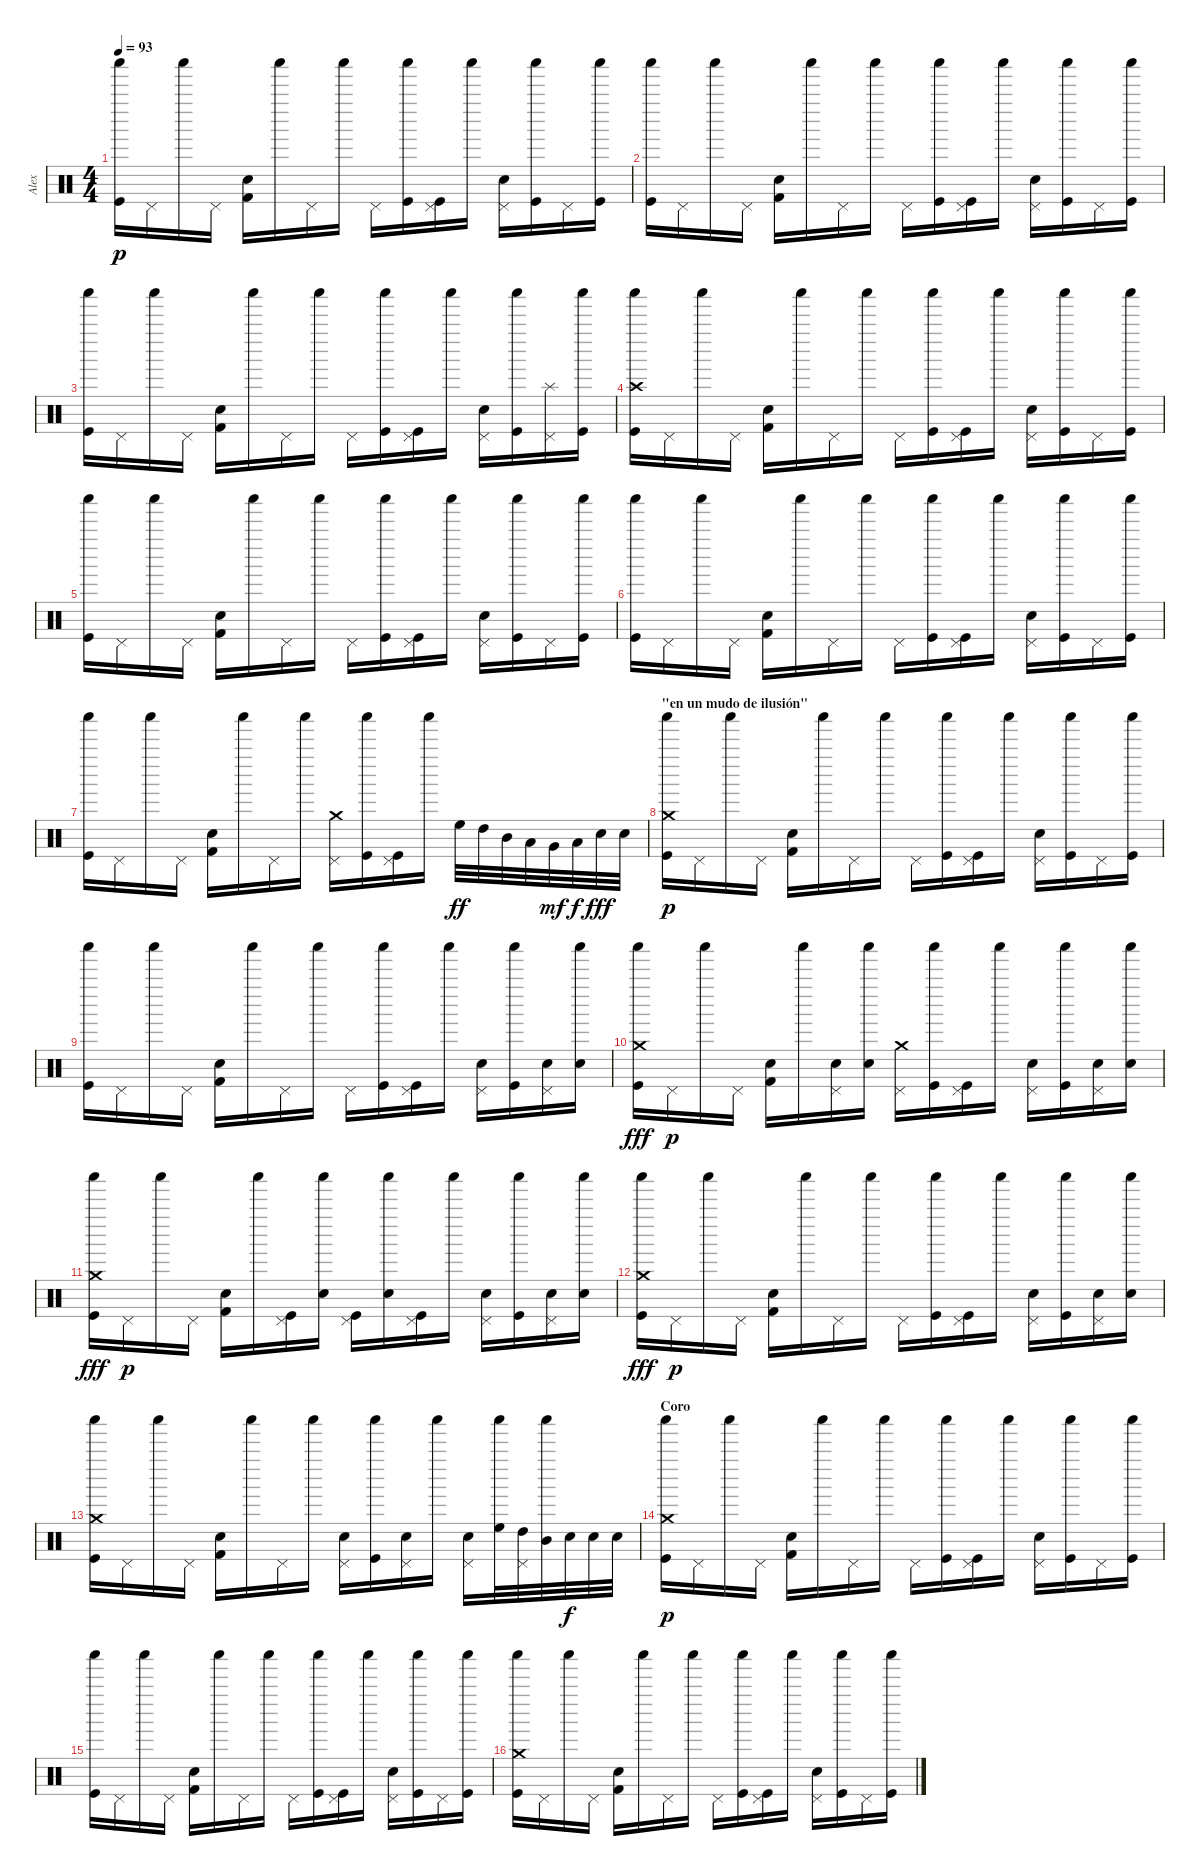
\track ("Alex" "Alex") {instrument percussion}
\staff {score}
\articulation defaults
\ts (4 4)
\tempo 93
\clef neutral
\ks c
("Kick (hit)" "Shaker (hit)").16{dy p} "Pedal Hi-Hat (hit)".16 "Shaker (hit)".16 "Pedal Hi-Hat (hit)".16 ("Electric Snare (hit)" "Kick (hit) 2").16 "Shaker (hit)".16 "Pedal Hi-Hat (hit)".16 "Shaker (hit)".16 "Pedal Hi-Hat (hit)".16 ("Kick (hit)" "Shaker (hit)").16 ("Kick (hit)" "Pedal Hi-Hat (hit)").16 "Shaker (hit)".16 ("Electric Snare (hit)" "Pedal Hi-Hat (hit)").16 ("Kick (hit)" "Shaker (hit)").16 "Pedal Hi-Hat (hit)".16 ("Kick (hit)" "Shaker (hit)").16 |
("Kick (hit)" "Shaker (hit)").16 "Pedal Hi-Hat (hit)".16 "Shaker (hit)".16 "Pedal Hi-Hat (hit)".16 ("Electric Snare (hit)" "Kick (hit) 2").16 "Shaker (hit)".16 "Pedal Hi-Hat (hit)".16 "Shaker (hit)".16 "Pedal Hi-Hat (hit)".16 ("Kick (hit)" "Shaker (hit)").16 ("Kick (hit)" "Pedal Hi-Hat (hit)").16 "Shaker (hit)".16 ("Electric Snare (hit)" "Pedal Hi-Hat (hit)").16 ("Kick (hit)" "Shaker (hit)").16 "Pedal Hi-Hat (hit)".16 ("Kick (hit)" "Shaker (hit)").16 |
("Kick (hit)" "Shaker (hit)").16 "Pedal Hi-Hat (hit)".16 "Shaker (hit)".16 "Pedal Hi-Hat (hit)".16 ("Electric Snare (hit)" "Kick (hit) 2").16 "Shaker (hit)".16 "Pedal Hi-Hat (hit)".16 "Shaker (hit)".16 "Pedal Hi-Hat (hit)".16 ("Kick (hit)" "Shaker (hit)").16 ("Kick (hit)" "Pedal Hi-Hat (hit)").16 "Shaker (hit)".16 ("Electric Snare (hit)" "Pedal Hi-Hat (hit)").16 ("Kick (hit)" "Shaker (hit)").16 ("Pedal Hi-Hat (hit)" "Splash (hit)").16 ("Kick (hit)" "Shaker (hit)").16 |
("Kick (hit)" "Shaker (hit)" "Crash high (hit)").16 "Pedal Hi-Hat (hit)".16 "Shaker (hit)".16 "Pedal Hi-Hat (hit)".16 ("Electric Snare (hit)" "Kick (hit) 2").16 "Shaker (hit)".16 "Pedal Hi-Hat (hit)".16 "Shaker (hit)".16 "Pedal Hi-Hat (hit)".16 ("Kick (hit)" "Shaker (hit)").16 ("Kick (hit)" "Pedal Hi-Hat (hit)").16 "Shaker (hit)".16 ("Electric Snare (hit)" "Pedal Hi-Hat (hit)").16 ("Kick (hit)" "Shaker (hit)").16 "Pedal Hi-Hat (hit)".16 ("Kick (hit)" "Shaker (hit)").16 |
("Kick (hit)" "Shaker (hit)").16 "Pedal Hi-Hat (hit)".16 "Shaker (hit)".16 "Pedal Hi-Hat (hit)".16 ("Electric Snare (hit)" "Kick (hit) 2").16 "Shaker (hit)".16 "Pedal Hi-Hat (hit)".16 "Shaker (hit)".16 "Pedal Hi-Hat (hit)".16 ("Kick (hit)" "Shaker (hit)").16 ("Kick (hit)" "Pedal Hi-Hat (hit)").16 "Shaker (hit)".16 ("Electric Snare (hit)" "Pedal Hi-Hat (hit)").16 ("Kick (hit)" "Shaker (hit)").16 "Pedal Hi-Hat (hit)".16 ("Kick (hit)" "Shaker (hit)").16 |
("Kick (hit)" "Shaker (hit)").16 "Pedal Hi-Hat (hit)".16 "Shaker (hit)".16 "Pedal Hi-Hat (hit)".16 ("Electric Snare (hit)" "Kick (hit) 2").16 "Shaker (hit)".16 "Pedal Hi-Hat (hit)".16 "Shaker (hit)".16 "Pedal Hi-Hat (hit)".16 ("Kick (hit)" "Shaker (hit)").16 ("Kick (hit)" "Pedal Hi-Hat (hit)").16 "Shaker (hit)".16 ("Electric Snare (hit)" "Pedal Hi-Hat (hit)").16 ("Kick (hit)" "Shaker (hit)").16 "Pedal Hi-Hat (hit)".16 ("Kick (hit)" "Shaker (hit)").16 |
("Kick (hit)" "Shaker (hit)").16 "Pedal Hi-Hat (hit)".16 "Shaker (hit)".16 "Pedal Hi-Hat (hit)".16 ("Electric Snare (hit)" "Kick (hit) 2").16 "Shaker (hit)".16 "Pedal Hi-Hat (hit)".16 "Shaker (hit)".16 ("Crash medium (hit)" "Pedal Hi-Hat (hit)").16 ("Kick (hit)" "Shaker (hit)").16 ("Kick (hit)" "Pedal Hi-Hat (hit)").16 "Shaker (hit)".16 "High Floor Tom (hit)".32{dy ff} "High Tom (hit)".32 "Mid Tom (hit)".32 "Low Tom (hit)".32 "Very Low Tom (hit)".32{dy mf} "Low Floor Tom (hit)".32{dy f} "Electric Snare (hit)".32{dy fff} "Electric Snare (hit)".32 |
\section ("" "\"en un mudo de ilusión\"")
("Kick (hit)" "Shaker (hit)" "Crash medium (hit)").16{dy p} "Pedal Hi-Hat (hit)".16 "Shaker (hit)".16 "Pedal Hi-Hat (hit)".16 ("Electric Snare (hit)" "Kick (hit) 2").16 "Shaker (hit)".16 "Pedal Hi-Hat (hit)".16 "Shaker (hit)".16 "Pedal Hi-Hat (hit)".16 ("Kick (hit)" "Shaker (hit)").16 ("Kick (hit)" "Pedal Hi-Hat (hit)").16 "Shaker (hit)".16 ("Electric Snare (hit)" "Pedal Hi-Hat (hit)").16 ("Kick (hit)" "Shaker (hit)").16 "Pedal Hi-Hat (hit)".16 ("Kick (hit)" "Shaker (hit)").16 |
("Kick (hit)" "Shaker (hit)").16 "Pedal Hi-Hat (hit)".16 "Shaker (hit)".16 "Pedal Hi-Hat (hit)".16 ("Electric Snare (hit)" "Kick (hit) 2").16 "Shaker (hit)".16 "Pedal Hi-Hat (hit)".16 "Shaker (hit)".16 "Pedal Hi-Hat (hit)".16 ("Kick (hit)" "Shaker (hit)").16 ("Kick (hit)" "Pedal Hi-Hat (hit)").16 "Shaker (hit)".16 ("Electric Snare (hit)" "Pedal Hi-Hat (hit)").16 ("Kick (hit)" "Shaker (hit)").16 ("Electric Snare (hit)" "Pedal Hi-Hat (hit)").16 ("Electric Snare (hit)" "Shaker (hit)").16 |
("Kick (hit)" "Shaker (hit)" "Crash medium (hit)").16{dy fff} "Pedal Hi-Hat (hit)".16{dy p} "Shaker (hit)".16 "Pedal Hi-Hat (hit)".16 ("Electric Snare (hit)" "Kick (hit) 2").16 "Shaker (hit)".16 ("Electric Snare (hit)" "Pedal Hi-Hat (hit)").16 ("Electric Snare (hit)" "Shaker (hit)").16 ("Crash medium (hit)" "Pedal Hi-Hat (hit)").16 ("Kick (hit)" "Shaker (hit)").16 ("Kick (hit)" "Pedal Hi-Hat (hit)").16 "Shaker (hit)".16 ("Electric Snare (hit)" "Pedal Hi-Hat (hit)").16 ("Kick (hit)" "Shaker (hit)").16 ("Electric Snare (hit)" "Pedal Hi-Hat (hit)").16 ("Electric Snare (hit)" "Shaker (hit)").16 |
("Kick (hit)" "Shaker (hit)" "Crash medium (hit)").16{dy fff} "Pedal Hi-Hat (hit)".16{dy p} "Shaker (hit)".16 "Pedal Hi-Hat (hit)".16 ("Electric Snare (hit)" "Kick (hit) 2").16 "Shaker (hit)".16 ("Kick (hit)" "Pedal Hi-Hat (hit)").16 ("Electric Snare (hit)" "Shaker (hit)").16 ("Kick (hit)" "Pedal Hi-Hat (hit)").16 ("Electric Snare (hit)" "Shaker (hit)").16 ("Kick (hit)" "Pedal Hi-Hat (hit)").16 "Shaker (hit)".16 ("Electric Snare (hit)" "Pedal Hi-Hat (hit)").16 ("Kick (hit)" "Shaker (hit)").16 ("Electric Snare (hit)" "Pedal Hi-Hat (hit)").16 ("Electric Snare (hit)" "Shaker (hit)").16 |
("Kick (hit)" "Shaker (hit)" "Crash medium (hit)").16{dy fff} "Pedal Hi-Hat (hit)".16{dy p} "Shaker (hit)".16 "Pedal Hi-Hat (hit)".16 ("Electric Snare (hit)" "Kick (hit) 2").16 "Shaker (hit)".16 "Pedal Hi-Hat (hit)".16 "Shaker (hit)".16 "Pedal Hi-Hat (hit)".16 ("Kick (hit)" "Shaker (hit)").16 ("Kick (hit)" "Pedal Hi-Hat (hit)").16 "Shaker (hit)".16 ("Electric Snare (hit)" "Pedal Hi-Hat (hit)").16 ("Kick (hit)" "Shaker (hit)").16 ("Electric Snare (hit)" "Pedal Hi-Hat (hit)").16 ("Electric Snare (hit)" "Shaker (hit)").16 |
("Kick (hit)" "Shaker (hit)" "Crash medium (hit)").16 "Pedal Hi-Hat (hit)".16 "Shaker (hit)".16 "Pedal Hi-Hat (hit)".16 ("Electric Snare (hit)" "Kick (hit) 2").16 "Shaker (hit)".16 "Pedal Hi-Hat (hit)".16 "Shaker (hit)".16 ("Electric Snare (hit)" "Pedal Hi-Hat (hit)").16 ("Kick (hit)" "Shaker (hit)").16 ("Electric Snare (hit)" "Pedal Hi-Hat (hit)").16 "Shaker (hit)".16 ("Electric Snare (hit)" "Pedal Hi-Hat (hit)").16 ("High Floor Tom (hit)" "Shaker (hit)").32 ("High Tom (hit)" "Pedal Hi-Hat (hit)").32 ("Mid Tom (hit)" "Shaker (hit)").32 "Electric Snare (hit)".32{dy f} "Electric Snare (hit)".32 "Electric Snare (hit)".32 |
\section ("" "Coro")
("Kick (hit)" "Shaker (hit)" "Crash medium (hit)").16{dy p} "Pedal Hi-Hat (hit)".16 "Shaker (hit)".16 "Pedal Hi-Hat (hit)".16 ("Electric Snare (hit)" "Kick (hit) 2").16 "Shaker (hit)".16 "Pedal Hi-Hat (hit)".16 "Shaker (hit)".16 "Pedal Hi-Hat (hit)".16 ("Kick (hit)" "Shaker (hit)").16 ("Kick (hit)" "Pedal Hi-Hat (hit)").16 "Shaker (hit)".16 ("Electric Snare (hit)" "Pedal Hi-Hat (hit)").16 ("Kick (hit)" "Shaker (hit)").16 "Pedal Hi-Hat (hit)".16 ("Kick (hit)" "Shaker (hit)").16 |
("Kick (hit)" "Shaker (hit)").16 "Pedal Hi-Hat (hit)".16 "Shaker (hit)".16 "Pedal Hi-Hat (hit)".16 ("Electric Snare (hit)" "Kick (hit) 2").16 "Shaker (hit)".16 "Pedal Hi-Hat (hit)".16 "Shaker (hit)".16 "Pedal Hi-Hat (hit)".16 ("Kick (hit)" "Shaker (hit)").16 ("Kick (hit)" "Pedal Hi-Hat (hit)").16 "Shaker (hit)".16 ("Electric Snare (hit)" "Pedal Hi-Hat (hit)").16 ("Kick (hit)" "Shaker (hit)").16 "Pedal Hi-Hat (hit)".16 ("Kick (hit)" "Shaker (hit)").16 |
("Kick (hit)" "Shaker (hit)" "Crash medium (hit)").16 "Pedal Hi-Hat (hit)".16 "Shaker (hit)".16 "Pedal Hi-Hat (hit)".16 ("Electric Snare (hit)" "Kick (hit) 2").16 "Shaker (hit)".16 "Pedal Hi-Hat (hit)".16 "Shaker (hit)".16 "Pedal Hi-Hat (hit)".16 ("Kick (hit)" "Shaker (hit)").16 ("Kick (hit)" "Pedal Hi-Hat (hit)").16 "Shaker (hit)".16 ("Electric Snare (hit)" "Pedal Hi-Hat (hit)").16 ("Kick (hit)" "Shaker (hit)").16 "Pedal Hi-Hat (hit)".16 ("Kick (hit)" "Shaker (hit)").16
